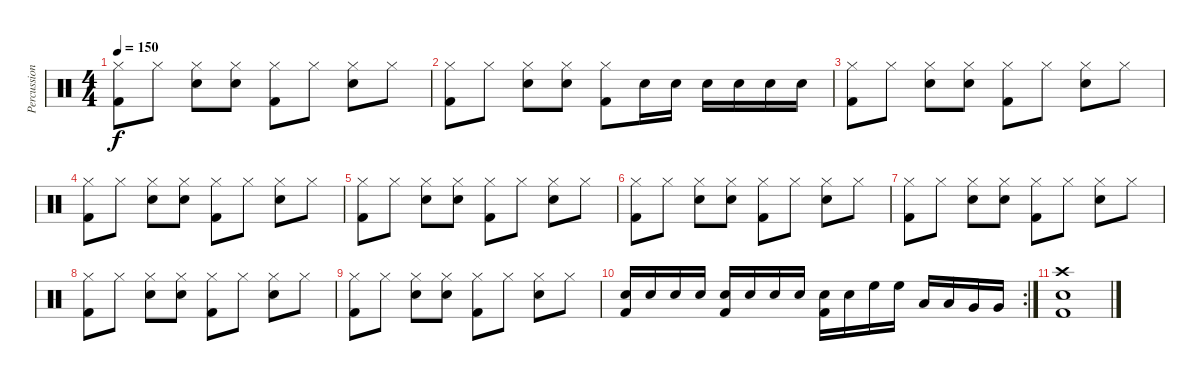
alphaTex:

\track ("Percussion" "Percussion") {instrument percussion}
\staff {score}
\articulation defaults
\ts (4 4)
\tempo 150
\clef neutral
\ks c
("Hi-Hat (closed)" "Kick (hit) 2").8{dy f} "Hi-Hat (closed)".8 ("Hi-Hat (closed)" "Electric Snare (hit)").8 ("Hi-Hat (closed)" "Electric Snare (hit)").8 ("Hi-Hat (closed)" "Kick (hit) 2").8 "Hi-Hat (closed)".8 ("Hi-Hat (closed)" "Electric Snare (hit)").8 "Hi-Hat (closed)".8 |
("Hi-Hat (closed)" "Kick (hit) 2").8 "Hi-Hat (closed)".8 ("Hi-Hat (closed)" "Electric Snare (hit)").8 ("Hi-Hat (closed)" "Electric Snare (hit)").8 ("Hi-Hat (closed)" "Kick (hit) 2").8 "Electric Snare (hit)".16 "Electric Snare (hit)".16 "Electric Snare (hit)".16 "Electric Snare (hit)".16 "Electric Snare (hit)".16 "Electric Snare (hit)".16 |
("Hi-Hat (closed)" "Kick (hit) 2").8 "Hi-Hat (closed)".8 ("Hi-Hat (closed)" "Electric Snare (hit)").8 ("Hi-Hat (closed)" "Electric Snare (hit)").8 ("Hi-Hat (closed)" "Kick (hit) 2").8 "Hi-Hat (closed)".8 ("Hi-Hat (closed)" "Electric Snare (hit)").8 "Hi-Hat (closed)".8 |
("Hi-Hat (closed)" "Kick (hit) 2").8 "Hi-Hat (closed)".8 ("Hi-Hat (closed)" "Electric Snare (hit)").8 ("Hi-Hat (closed)" "Electric Snare (hit)").8 ("Hi-Hat (closed)" "Kick (hit) 2").8 "Hi-Hat (closed)".8 ("Hi-Hat (closed)" "Electric Snare (hit)").8 "Hi-Hat (closed)".8 |
("Hi-Hat (closed)" "Kick (hit) 2").8 "Hi-Hat (closed)".8 ("Hi-Hat (closed)" "Electric Snare (hit)").8 ("Hi-Hat (closed)" "Electric Snare (hit)").8 ("Hi-Hat (closed)" "Kick (hit) 2").8 "Hi-Hat (closed)".8 ("Hi-Hat (closed)" "Electric Snare (hit)").8 "Hi-Hat (closed)".8 |
("Hi-Hat (closed)" "Kick (hit) 2").8 "Hi-Hat (closed)".8 ("Hi-Hat (closed)" "Electric Snare (hit)").8 ("Hi-Hat (closed)" "Electric Snare (hit)").8 ("Hi-Hat (closed)" "Kick (hit) 2").8 "Hi-Hat (closed)".8 ("Hi-Hat (closed)" "Electric Snare (hit)").8 "Hi-Hat (closed)".8 |
("Hi-Hat (closed)" "Kick (hit) 2").8 "Hi-Hat (closed)".8 ("Hi-Hat (closed)" "Electric Snare (hit)").8 ("Hi-Hat (closed)" "Electric Snare (hit)").8 ("Hi-Hat (closed)" "Kick (hit) 2").8 "Hi-Hat (closed)".8 ("Hi-Hat (closed)" "Electric Snare (hit)").8 "Hi-Hat (closed)".8 |
("Hi-Hat (closed)" "Kick (hit) 2").8 "Hi-Hat (closed)".8 ("Hi-Hat (closed)" "Electric Snare (hit)").8 ("Hi-Hat (closed)" "Electric Snare (hit)").8 ("Hi-Hat (closed)" "Kick (hit) 2").8 "Hi-Hat (closed)".8 ("Hi-Hat (closed)" "Electric Snare (hit)").8 "Hi-Hat (closed)".8 |
("Hi-Hat (closed)" "Kick (hit) 2").8 "Hi-Hat (closed)".8 ("Hi-Hat (closed)" "Electric Snare (hit)").8 ("Hi-Hat (closed)" "Electric Snare (hit)").8 ("Hi-Hat (closed)" "Kick (hit) 2").8 "Hi-Hat (closed)".8 ("Hi-Hat (closed)" "Electric Snare (hit)").8 "Hi-Hat (closed)".8 |
\rc 2
("Electric Snare (hit)" "Kick (hit) 2").16 "Electric Snare (hit)".16 "Electric Snare (hit)".16 "Electric Snare (hit)".16 ("Electric Snare (hit)" "Kick (hit) 2").16 "Electric Snare (hit)".16 "Electric Snare (hit)".16 "Electric Snare (hit)".16 ("Electric Snare (hit)" "Kick (hit) 2").16 "Electric Snare (hit)".16 "High Floor Tom (hit)".16 "High Floor Tom (hit)".16 "Low Tom (hit)".16 "Low Tom (hit)".16 "Very Low Tom (hit)".16 "Very Low Tom (hit)".16 |
("Crash high (hit)" "Electric Snare (hit)" "Kick (hit) 2").1
